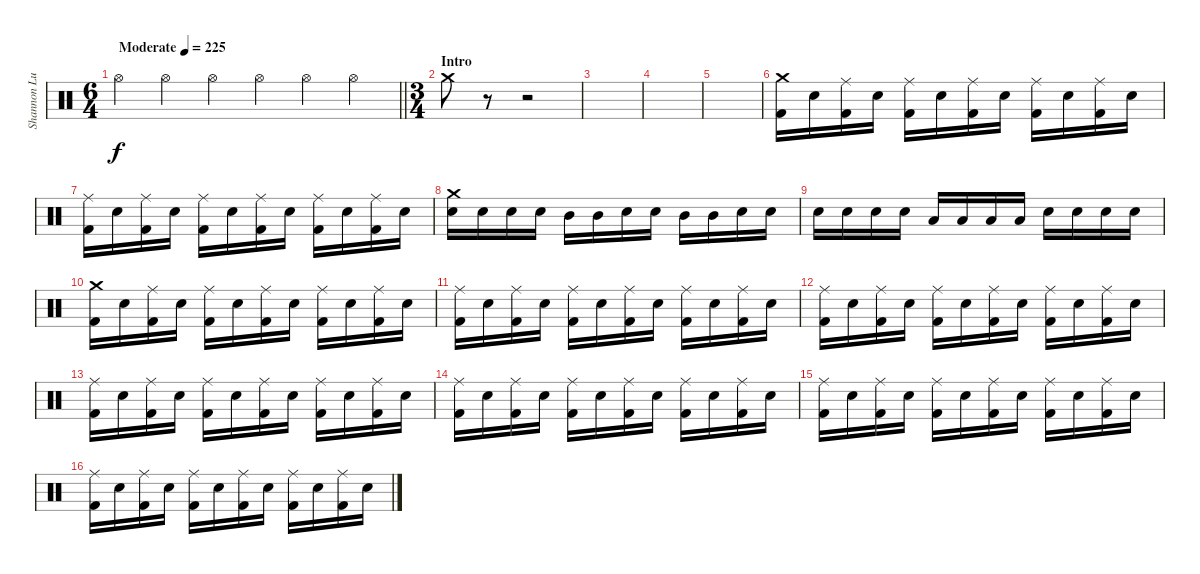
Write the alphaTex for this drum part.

\track ("Shannon Lucas" "Shannon Lu") {instrument percussion}
\staff {score}
\articulation defaults
\ts (6 4)
\tempo (225 "Moderate")
\clef neutral
\barLineRight lightlight
\ks c "Hi-Hat (open)".4{dy f} "Hi-Hat (open)".4 "Hi-Hat (open)".4 "Hi-Hat (open)".4 "Hi-Hat (open)".4 "Hi-Hat (open)".4
|
\ts (3 4)
\section ("" "Intro")
"Crash medium (hit)".8 r.8{volume 0} r.2 |
|
|
|
("Crash medium (hit)" "Kick (hit) 2").16 "Electric Snare (hit)".16 ("Ride (middle)" "Kick (hit) 2").16 "Electric Snare (hit)".16 ("Ride (middle)" "Kick (hit) 2").16 "Electric Snare (hit)".16 ("Ride (middle)" "Kick (hit) 2").16 "Electric Snare (hit)".16 ("Ride (middle)" "Kick (hit) 2").16 "Electric Snare (hit)".16 ("Ride (middle)" "Kick (hit) 2").16 "Electric Snare (hit)".16 |
("Ride (middle)" "Kick (hit) 2").16 "Electric Snare (hit)".16 ("Ride (middle)" "Kick (hit) 2").16 "Electric Snare (hit)".16 ("Ride (middle)" "Kick (hit) 2").16 "Electric Snare (hit)".16 ("Ride (middle)" "Kick (hit) 2").16 "Electric Snare (hit)".16 ("Ride (middle)" "Kick (hit) 2").16 "Electric Snare (hit)".16 ("Ride (middle)" "Kick (hit) 2").16 "Electric Snare (hit)".16 |
("Crash medium (hit)" "Electric Snare (hit)").16 "Electric Snare (hit)".16 "Electric Snare (hit)".16 "Electric Snare (hit)".16 "Mid Tom (hit)".16 "Mid Tom (hit)".16 "Electric Snare (hit)".16 "Electric Snare (hit)".16 "Mid Tom (hit)".16 "Mid Tom (hit)".16 "Electric Snare (hit)".16 "Electric Snare (hit)".16 |
"Electric Snare (hit)".16 "Electric Snare (hit)".16 "Electric Snare (hit)".16 "Electric Snare (hit)".16 "Low Tom (hit)".16 "Low Tom (hit)".16 "Low Tom (hit)".16 "Low Tom (hit)".16 "Electric Snare (hit)".16 "Electric Snare (hit)".16 "Electric Snare (hit)".16 "Electric Snare (hit)".16 |
("Crash medium (hit)" "Kick (hit) 2").16 "Electric Snare (hit)".16 ("Ride (middle)" "Kick (hit) 2").16 "Electric Snare (hit)".16 ("Ride (middle)" "Kick (hit) 2").16 "Electric Snare (hit)".16 ("Ride (middle)" "Kick (hit) 2").16 "Electric Snare (hit)".16 ("Ride (middle)" "Kick (hit) 2").16 "Electric Snare (hit)".16 ("Ride (middle)" "Kick (hit) 2").16 "Electric Snare (hit)".16 |
("Ride (middle)" "Kick (hit) 2").16 "Electric Snare (hit)".16 ("Ride (middle)" "Kick (hit) 2").16 "Electric Snare (hit)".16 ("Ride (middle)" "Kick (hit) 2").16 "Electric Snare (hit)".16 ("Ride (middle)" "Kick (hit) 2").16 "Electric Snare (hit)".16 ("Ride (middle)" "Kick (hit) 2").16 "Electric Snare (hit)".16 ("Ride (middle)" "Kick (hit) 2").16 "Electric Snare (hit)".16 |
("Ride (middle)" "Kick (hit) 2").16 "Electric Snare (hit)".16 ("Ride (middle)" "Kick (hit) 2").16 "Electric Snare (hit)".16 ("Ride (middle)" "Kick (hit) 2").16 "Electric Snare (hit)".16 ("Ride (middle)" "Kick (hit) 2").16 "Electric Snare (hit)".16 ("Ride (middle)" "Kick (hit) 2").16 "Electric Snare (hit)".16 ("Ride (middle)" "Kick (hit) 2").16 "Electric Snare (hit)".16 |
("Ride (middle)" "Kick (hit) 2").16 "Electric Snare (hit)".16 ("Ride (middle)" "Kick (hit) 2").16 "Electric Snare (hit)".16 ("Ride (middle)" "Kick (hit) 2").16 "Electric Snare (hit)".16 ("Ride (middle)" "Kick (hit) 2").16 "Electric Snare (hit)".16 ("Ride (middle)" "Kick (hit) 2").16 "Electric Snare (hit)".16 ("Ride (middle)" "Kick (hit) 2").16 "Electric Snare (hit)".16 |
("Ride (middle)" "Kick (hit) 2").16 "Electric Snare (hit)".16 ("Ride (middle)" "Kick (hit) 2").16 "Electric Snare (hit)".16 ("Ride (middle)" "Kick (hit) 2").16 "Electric Snare (hit)".16 ("Ride (middle)" "Kick (hit) 2").16 "Electric Snare (hit)".16 ("Ride (middle)" "Kick (hit) 2").16 "Electric Snare (hit)".16 ("Ride (middle)" "Kick (hit) 2").16 "Electric Snare (hit)".16 |
("Ride (middle)" "Kick (hit) 2").16 "Electric Snare (hit)".16 ("Ride (middle)" "Kick (hit) 2").16 "Electric Snare (hit)".16 ("Ride (middle)" "Kick (hit) 2").16 "Electric Snare (hit)".16 ("Ride (middle)" "Kick (hit) 2").16 "Electric Snare (hit)".16 ("Ride (middle)" "Kick (hit) 2").16 "Electric Snare (hit)".16 ("Ride (middle)" "Kick (hit) 2").16 "Electric Snare (hit)".16 |
("Ride (middle)" "Kick (hit) 2").16 "Electric Snare (hit)".16 ("Ride (middle)" "Kick (hit) 2").16 "Electric Snare (hit)".16 ("Ride (middle)" "Kick (hit) 2").16 "Electric Snare (hit)".16 ("Ride (middle)" "Kick (hit) 2").16 "Electric Snare (hit)".16 ("Ride (middle)" "Kick (hit) 2").16 "Electric Snare (hit)".16 ("Ride (middle)" "Kick (hit) 2").16 "Electric Snare (hit)".16
